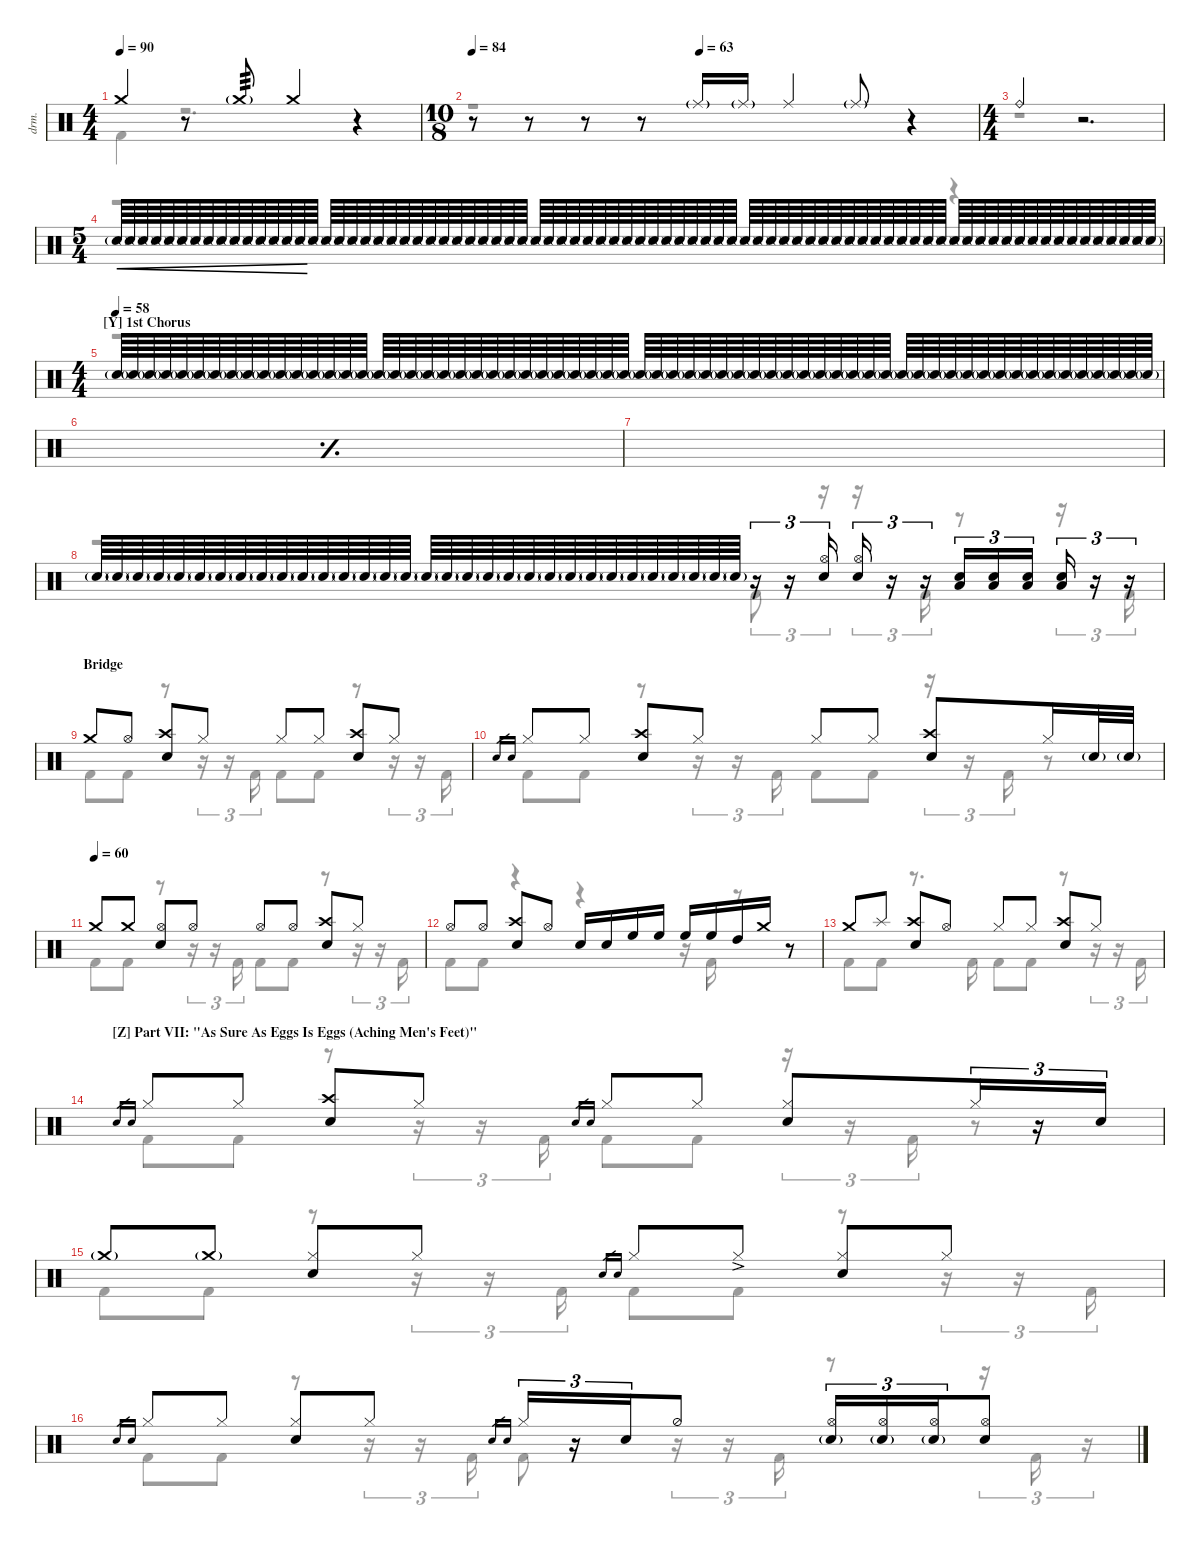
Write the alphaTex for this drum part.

\defaultSystemsLayout 4
\hideDynamics
\bracketExtendMode nobrackets
\track ("Drums" "drm.") {instrument percussion}
\staff {score}
\articulation defaults
\voice
\ts (4 4)
\beaming (8 2 2 2 2)
\tempo 90
\clef neutral
\scale
0.488793
\ks c "Crash medium (hit)".4{dy mf}
r.8 "Crash medium (hit)"{g}.8{tp 3} "Crash medium (hit)".4 r.4 |
\ts (10 8)
\beaming (8 3 3 3 1)
\tempo 84
\tempo (63 0.45)
\scale
0.511208 r.8 r.8 r.8 r.8 "Ride (middle)"{g}.16 "Ride (middle)"{g}.16 "Ride (middle)".4 "Ride (middle)"{g}.8 r.4 |
\ts (4 4)
\beaming (8 2 2 2 2)
\scale
0.488792 "Ride (bell)".4 r.2{d} |
\ts (5 4)
\beaming (8 6 4)
"Snare (hit) 2"{g}.64{cre} "Snare (hit) 2"{g}.64{cre} "Snare (hit) 2"{g}.64{cre} "Snare (hit) 2"{g}.64{cre} "Snare (hit) 2"{g}.64{cre} "Snare (hit) 2"{g}.64{cre} "Snare (hit) 2"{g}.64{cre} "Snare (hit) 2"{g}.64{cre} "Snare (hit) 2"{g}.64{cre} "Snare (hit) 2"{g}.64{cre} "Snare (hit) 2"{g}.64{cre} "Snare (hit) 2"{g}.64{cre} "Snare (hit) 2"{g}.64{cre} "Snare (hit) 2"{g}.64{cre} "Snare (hit) 2"{g}.64{cre} "Snare (hit) 2"{g}.64{cre beam split} "Snare (hit) 2"{g}.64 "Snare (hit) 2"{g}.64 "Snare (hit) 2"{g}.64 "Snare (hit) 2"{g}.64 "Snare (hit) 2"{g}.64 "Snare (hit) 2"{g}.64 "Snare (hit) 2"{g}.64 "Snare (hit) 2"{g}.64 "Snare (hit) 2"{g}.64 "Snare (hit) 2"{g}.64 "Snare (hit) 2"{g}.64 "Snare (hit) 2"{g}.64 "Snare (hit) 2"{g}.64 "Snare (hit) 2"{g}.64 "Snare (hit) 2"{g}.64 "Snare (hit) 2"{g}.64{beam split} "Snare (hit) 2"{g}.64 "Snare (hit) 2"{g}.64 "Snare (hit) 2"{g}.64 "Snare (hit) 2"{g}.64 "Snare (hit) 2"{g}.64 "Snare (hit) 2"{g}.64 "Snare (hit) 2"{g}.64 "Snare (hit) 2"{g}.64 "Snare (hit) 2"{g}.64 "Snare (hit) 2"{g}.64 "Snare (hit) 2"{g}.64 "Snare (hit) 2"{g}.64 "Snare (hit) 2"{g}.64 "Snare (hit) 2"{g}.64 "Snare (hit) 2"{g}.64 "Snare (hit) 2"{g}.64 "Snare (hit) 2"{g}.64 "Snare (hit) 2"{g}.64 "Snare (hit) 2"{g}.64 "Snare (hit) 2"{g}.64 "Snare (hit) 2"{g}.64 "Snare (hit) 2"{g}.64 "Snare (hit) 2"{g}.64 "Snare (hit) 2"{g}.64 "Snare (hit) 2"{g}.64 "Snare (hit) 2"{g}.64 "Snare (hit) 2"{g}.64 "Snare (hit) 2"{g}.64 "Snare (hit) 2"{g}.64 "Snare (hit) 2"{g}.64 "Snare (hit) 2"{g}.64 "Snare (hit) 2"{g}.64{beam split} "Snare (hit) 2"{g}.64 "Snare (hit) 2"{g}.64 "Snare (hit) 2"{g}.64 "Snare (hit) 2"{g}.64 "Snare (hit) 2"{g}.64 "Snare (hit) 2"{g}.64 "Snare (hit) 2"{g}.64 "Snare (hit) 2"{g}.64 "Snare (hit) 2"{g}.64 "Snare (hit) 2"{g}.64 "Snare (hit) 2"{g}.64 "Snare (hit) 2"{g}.64 "Snare (hit) 2"{g}.64 "Snare (hit) 2"{g}.64 "Snare (hit) 2"{g}.64 "Snare (hit) 2"{g}.64 |
\ts (4 4)
\beaming (8 2 2 2 2)
\section ("Y" "1st Chorus")
\tempo 58
\scale
0.86007 "Snare (hit) 2"{g}.64 "Snare (hit) 2"{g}.64 "Snare (hit) 2"{g}.64 "Snare (hit) 2"{g}.64 "Snare (hit) 2"{g}.64 "Snare (hit) 2"{g}.64 "Snare (hit) 2"{g}.64 "Snare (hit) 2"{g}.64 "Snare (hit) 2"{g}.64 "Snare (hit) 2"{g}.64 "Snare (hit) 2"{g}.64 "Snare (hit) 2"{g}.64 "Snare (hit) 2"{g}.64 "Snare (hit) 2"{g}.64 "Snare (hit) 2"{g}.64 "Snare (hit) 2"{g}.64 "Snare (hit) 2"{g}.64 "Snare (hit) 2"{g}.64 "Snare (hit) 2"{g}.64 "Snare (hit) 2"{g}.64 "Snare (hit) 2"{g}.64 "Snare (hit) 2"{g}.64 "Snare (hit) 2"{g}.64 "Snare (hit) 2"{g}.64 "Snare (hit) 2"{g}.64 "Snare (hit) 2"{g}.64 "Snare (hit) 2"{g}.64 "Snare (hit) 2"{g}.64 "Snare (hit) 2"{g}.64 "Snare (hit) 2"{g}.64 "Snare (hit) 2"{g}.64 "Snare (hit) 2"{g}.64 "Snare (hit) 2"{g}.64 "Snare (hit) 2"{g}.64 "Snare (hit) 2"{g}.64 "Snare (hit) 2"{g}.64 "Snare (hit) 2"{g}.64 "Snare (hit) 2"{g}.64 "Snare (hit) 2"{g}.64 "Snare (hit) 2"{g}.64 "Snare (hit) 2"{g}.64 "Snare (hit) 2"{g}.64 "Snare (hit) 2"{g}.64 "Snare (hit) 2"{g}.64 "Snare (hit) 2"{g}.64 "Snare (hit) 2"{g}.64 "Snare (hit) 2"{g}.64 "Snare (hit) 2"{g}.64 "Snare (hit) 2"{g}.64 "Snare (hit) 2"{g}.64 "Snare (hit) 2"{g}.64 "Snare (hit) 2"{g}.64 "Snare (hit) 2"{g}.64 "Snare (hit) 2"{g}.64 "Snare (hit) 2"{g}.64 "Snare (hit) 2"{g}.64 "Snare (hit) 2"{g}.64 "Snare (hit) 2"{g}.64 "Snare (hit) 2"{g}.64 "Snare (hit) 2"{g}.64 "Snare (hit) 2"{g}.64 "Snare (hit) 2"{g}.64 "Snare (hit) 2"{g}.64 "Snare (hit) 2"{g}.64 |
\simile simple
\scale
0.13993 |
|
\simile none "Snare (hit) 2"{g}.64 "Snare (hit) 2"{g}.64 "Snare (hit) 2"{g}.64 "Snare (hit) 2"{g}.64 "Snare (hit) 2"{g}.64 "Snare (hit) 2"{g}.64 "Snare (hit) 2"{g}.64 "Snare (hit) 2"{g}.64 "Snare (hit) 2"{g}.64 "Snare (hit) 2"{g}.64 "Snare (hit) 2"{g}.64 "Snare (hit) 2"{g}.64 "Snare (hit) 2"{g}.64 "Snare (hit) 2"{g}.64 "Snare (hit) 2"{g}.64 "Snare (hit) 2"{g}.64 "Snare (hit) 2"{g}.64 "Snare (hit) 2"{g}.64 "Snare (hit) 2"{g}.64 "Snare (hit) 2"{g}.64 "Snare (hit) 2"{g}.64 "Snare (hit) 2"{g}.64 "Snare (hit) 2"{g}.64 "Snare (hit) 2"{g}.64 "Snare (hit) 2"{g}.64 "Snare (hit) 2"{g}.64 "Snare (hit) 2"{g}.64 "Snare (hit) 2"{g}.64 "Snare (hit) 2"{g}.64 "Snare (hit) 2"{g}.64 "Snare (hit) 2"{g}.64 "Snare (hit) 2"{g}.64
r.16{tu (3 2)} r.16{tu (3 2)} ("Snare (hit) 2" "Hi-Hat (open)").16{tu (3 2)} ("Hi-Hat (open)" "Snare (hit) 2").16{tu (3 2)} r.16{tu (3 2)} r.16{tu (3 2)} ("Snare (hit) 2" "Low Tom (hit)").16{tu (3 2)} ("Snare (hit) 2" "Low Tom (hit)").16{tu (3 2)} ("Snare (hit) 2" "Low Tom (hit)").16{tu (3 2)} ("Low Tom (hit)" "Snare (hit) 2").16{tu (3 2)} r.16{tu (3 2)} r.16{tu (3 2)} |
\section ("" "Bridge")
\scale
0.499544 "Crash medium (hit)".8 "Hi-Hat (open)".8 ("Crash high (hit)" "Snare (hit) 2").8 "Hi-Hat (closed)".8 "Hi-Hat (closed)".8 "Hi-Hat (closed)".8 ("Crash high (hit)" "Snare (hit) 2").8 "Hi-Hat (closed)".8 |
\scale
0.500456 "Snare (hit) 2".16{gr} "Snare (hit) 2".16{gr} "Hi-Hat (closed)".8 "Hi-Hat (closed)".8 ("Crash high (hit)" "Snare (hit) 2").8 "Hi-Hat (closed)".8 "Hi-Hat (closed)".8 "Hi-Hat (closed)".8 ("Crash high (hit)" "Snare (hit) 2").8 "Hi-Hat (closed)".16 "Snare (hit) 2"{g}.32 "Snare (hit) 2"{g}.32 |
\tempo (60)
"Crash medium (hit)".8 "Crash medium (hit)".8 ("Snare (hit) 2" "Hi-Hat (open)").8 "Hi-Hat (open)".8 "Hi-Hat (open)".8 "Hi-Hat (open)".8 ("Crash high (hit)" "Snare (hit) 2").8 "Hi-Hat (closed)".8 |
"Hi-Hat (open)".8 "Hi-Hat (open)".8 ("Crash high (hit)" "Snare (hit) 2").8 "Hi-Hat (open)".8 "Snare (hit) 2".16 "Snare (hit) 2".16 "High Floor Tom (hit)".16 "High Floor Tom (hit)".16 "High Floor Tom (hit)".16 "High Floor Tom (hit)".16 "High Tom (hit)".16 "Crash medium (hit)".16 r.8 |
"Crash medium (hit)".8 "Splash (hit)".8 ("Crash high (hit)" "Snare (hit) 2").8 "Hi-Hat (open)".8 "Hi-Hat (closed)".8 "Hi-Hat (closed)".8 ("Crash high (hit)" "Snare (hit) 2").8 "Hi-Hat (closed)".8 |
\section ("Z" "Part VII: \"As Sure As Eggs Is Eggs (Aching Men's Feet)\"")
"Snare (hit) 2".16{gr} "Snare (hit) 2".16{gr} "Hi-Hat (closed)".8 "Hi-Hat (closed)".8 ("Crash high (hit)" "Snare (hit) 2").8 "Hi-Hat (closed)".8 "Snare (hit) 2".16{gr} "Snare (hit) 2".16{gr} "Hi-Hat (closed)".8 "Hi-Hat (closed)".8 ("Hi-Hat (closed)" "Snare (hit) 2").8{beam merge} "Hi-Hat (closed)".16{tu (3 2)} r.16{tu (3 2)} "Snare (hit) 2".16{tu (3 2)} |
"Crash medium (hit)"{g}.8 "Crash medium (hit)"{g}.8 ("Hi-Hat (closed)" "Snare (hit) 2").8 "Hi-Hat (closed)".8 "Snare (hit) 2".16{gr} "Snare (hit) 2".16{gr} "Hi-Hat (closed)".8 "Hi-Hat (closed)"{ac}.8 ("Hi-Hat (closed)" "Snare (hit) 2").8 "Hi-Hat (closed)".8 |
\scale
0.511206 "Snare (hit) 2".16{gr} "Snare (hit) 2".16{gr} "Hi-Hat (closed)".8 "Hi-Hat (closed)".8 ("Hi-Hat (closed)" "Snare (hit) 2").8 "Hi-Hat (closed)".8 "Snare (hit) 2".16{gr} "Snare (hit) 2".16{gr} "Hi-Hat (closed)".16{tu (3 2)} r.16{tu (3 2)} "Snare (hit) 2".16{tu (3 2) beam merge} "Hi-Hat (half)".8 ("Hi-Hat (open)" "Snare (hit) 2"{g}).16{tu (3 2)} ("Hi-Hat (open)" "Snare (hit) 2"{g}).16{tu (3 2)} ("Hi-Hat (open)" "Snare (hit) 2"{g}).16{tu (3 2) beam merge} ("Snare (hit) 2" "Hi-Hat (open)").8
\voice
\clef neutral
\ottava regular
\simile none
\scale
0.488793
\ks c "Kick (hit) 2".4{dy mf}
r.2{d} |
\scale
0.511208 r.1 r.4 |
\scale
0.488792 r.1 |
r.1 r.4 |
\scale
0.86007 r.1 |
\simile simple
\scale
0.13993 |
|
\simile none
r.2 "Kick (hit) 2".8{tu (3 2)} r.16{tu (3 2)} r.16{tu (3 2)} r.16{tu (3 2)} "Kick (hit) 2".16{tu (3 2)} r.8 r.16{tu (3 2)} r.16{tu (3 2)} "Kick (hit) 2".16{tu (3 2)} |
\scale
0.499544 "Kick (hit) 2".8 "Kick (hit) 2".8 r.8 r.16{tu (3 2)} r.16{tu (3 2)} "Kick (hit) 2".16{tu (3 2)} "Kick (hit) 2".8 "Kick (hit) 2".8 r.8 r.16{tu (3 2)} r.16{tu (3 2)} "Kick (hit) 2".16{tu (3 2)} |
\scale
0.500456 "Kick (hit) 2".8 "Kick (hit) 2".8 r.8 r.16{tu (3 2)} r.16{tu (3 2)} "Kick (hit) 2".16{tu (3 2)} "Kick (hit) 2".8 "Kick (hit) 2".8 r.16{tu (3 2)} r.16{tu (3 2)} "Kick (hit) 2".16{tu (3 2)} r.8 |
"Kick (hit) 2".8 "Kick (hit) 2".8 r.8 r.16{tu (3 2)} r.16{tu (3 2)} "Kick (hit) 2".16{tu (3 2)} "Kick (hit) 2".8 "Kick (hit) 2".8 r.8 r.16{tu (3 2)} r.16{tu (3 2)} "Kick (hit) 2".16{tu (3 2)} |
"Kick (hit) 2".8 "Kick (hit) 2".8 r.4 r.4 r.16 "Kick (hit) 2".16 r.8 |
"Kick (hit) 2".8 "Kick (hit) 2".8 r.8{d} "Kick (hit) 2".16 "Kick (hit) 2".8 "Kick (hit) 2".8 r.8 r.16{tu (3 2)} r.16{tu (3 2)} "Kick (hit) 2".16{tu (3 2)} |
"Kick (hit) 2".8 "Kick (hit) 2".8 r.8 r.16{tu (3 2)} r.16{tu (3 2)} "Kick (hit) 2".16{tu (3 2)} "Kick (hit) 2".8 "Kick (hit) 2".8 r.16{tu (3 2)} r.16{tu (3 2)} "Kick (hit) 2".16{tu (3 2)} r.8 |
"Kick (hit) 2".8 "Kick (hit) 2".8 r.8 r.16{tu (3 2)} r.16{tu (3 2)} "Kick (hit) 2".16{tu (3 2)} "Kick (hit) 2".8 "Kick (hit) 2".8 r.8 r.16{tu (3 2)} r.16{tu (3 2)} "Kick (hit) 2".16{tu (3 2)} |
\scale
0.511206 "Kick (hit) 2".8 "Kick (hit) 2".8 r.8 r.16{tu (3 2)} r.16{tu (3 2)} "Kick (hit) 2".16{tu (3 2)} "Kick (hit) 2".8 r.16{tu (3 2)} r.16{tu (3 2)} "Kick (hit) 2".16{tu (3 2)} r.8 r.16{tu (3 2)} "Kick (hit) 2".16{tu (3 2)} r.16{tu (3 2)}
